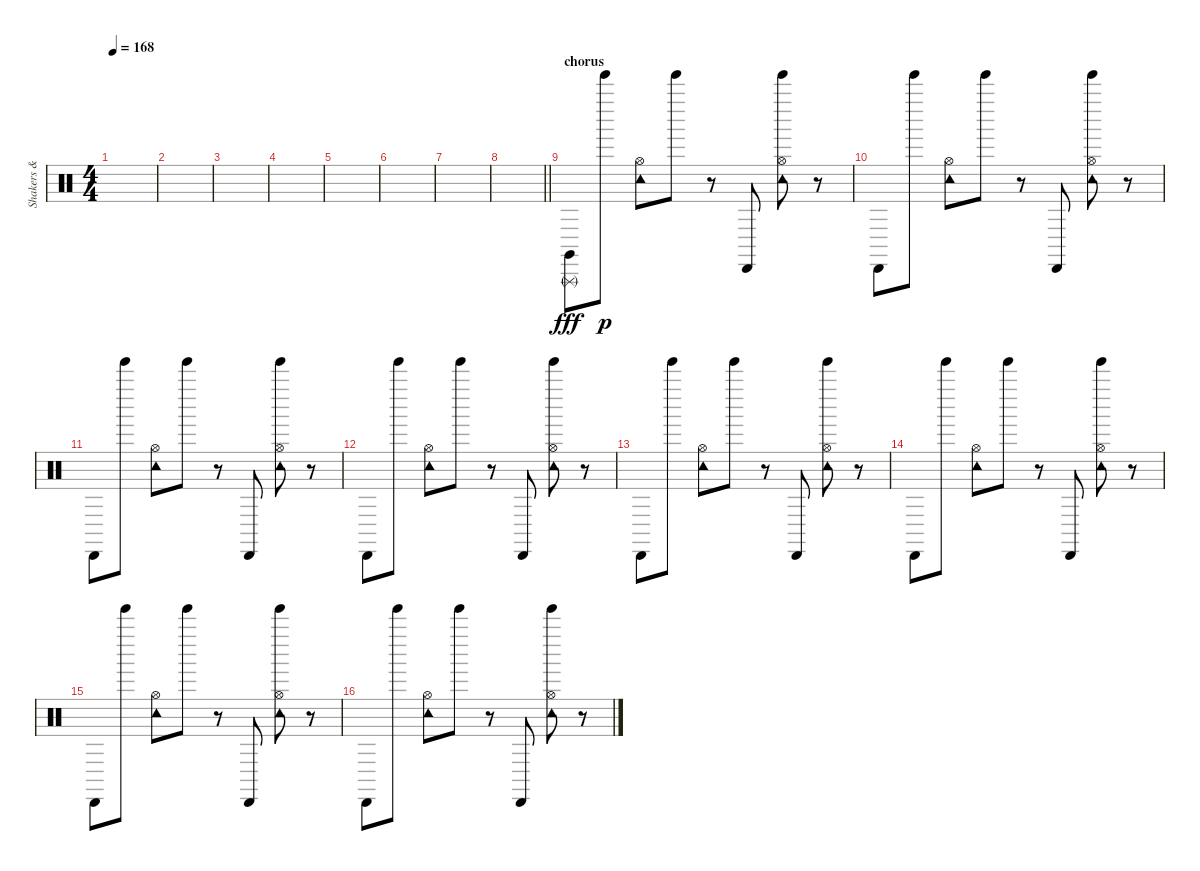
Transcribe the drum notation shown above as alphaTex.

\track ("Shakers & Effects" "Shakers & ") {instrument percussion}
\staff {score}
\articulation defaults
\ts (4 4)
\tempo 168
\clef neutral
\ks c
|
|
|
|
|
|
|
\barLineRight lightlight
|
\section ("" "chorus")
("Claves (hit)" "Triangle (rnute)").8{dy fff} "Tinkle Bell (hit)".8{dy p} ("Tambourine (hit)" "Hi-Hat (open)").8 "Tinkle Bell (hit)".8 r.8 "Cabasa (hit)".8 ("Tambourine (hit)" "Tinkle Bell (hit)" "Hi-Hat (open)").8 r.8 |
"Cabasa (hit)".8 "Tinkle Bell (hit)".8 ("Tambourine (hit)" "Hi-Hat (open)").8 "Tinkle Bell (hit)".8 r.8 "Cabasa (hit)".8 ("Tambourine (hit)" "Tinkle Bell (hit)" "Hi-Hat (open)").8 r.8 |
"Cabasa (hit)".8 "Tinkle Bell (hit)".8 ("Tambourine (hit)" "Hi-Hat (open)").8 "Tinkle Bell (hit)".8 r.8 "Cabasa (hit)".8 ("Tambourine (hit)" "Tinkle Bell (hit)" "Hi-Hat (open)").8 r.8 |
"Cabasa (hit)".8 "Tinkle Bell (hit)".8 ("Tambourine (hit)" "Hi-Hat (open)").8 "Tinkle Bell (hit)".8 r.8 "Cabasa (hit)".8 ("Tambourine (hit)" "Tinkle Bell (hit)" "Hi-Hat (open)").8 r.8 |
"Cabasa (hit)".8 "Tinkle Bell (hit)".8 ("Tambourine (hit)" "Hi-Hat (open)").8 "Tinkle Bell (hit)".8 r.8 "Cabasa (hit)".8 ("Tambourine (hit)" "Tinkle Bell (hit)" "Hi-Hat (open)").8 r.8 |
"Cabasa (hit)".8 "Tinkle Bell (hit)".8 ("Tambourine (hit)" "Hi-Hat (open)").8 "Tinkle Bell (hit)".8 r.8 "Cabasa (hit)".8 ("Tambourine (hit)" "Tinkle Bell (hit)" "Hi-Hat (open)").8 r.8 |
"Cabasa (hit)".8 "Tinkle Bell (hit)".8 ("Tambourine (hit)" "Hi-Hat (open)").8 "Tinkle Bell (hit)".8 r.8 "Cabasa (hit)".8 ("Tambourine (hit)" "Tinkle Bell (hit)" "Hi-Hat (open)").8 r.8 |
"Cabasa (hit)".8 "Tinkle Bell (hit)".8 ("Tambourine (hit)" "Hi-Hat (open)").8 "Tinkle Bell (hit)".8 r.8 "Cabasa (hit)".8 ("Tambourine (hit)" "Tinkle Bell (hit)" "Hi-Hat (open)").8 r.8
